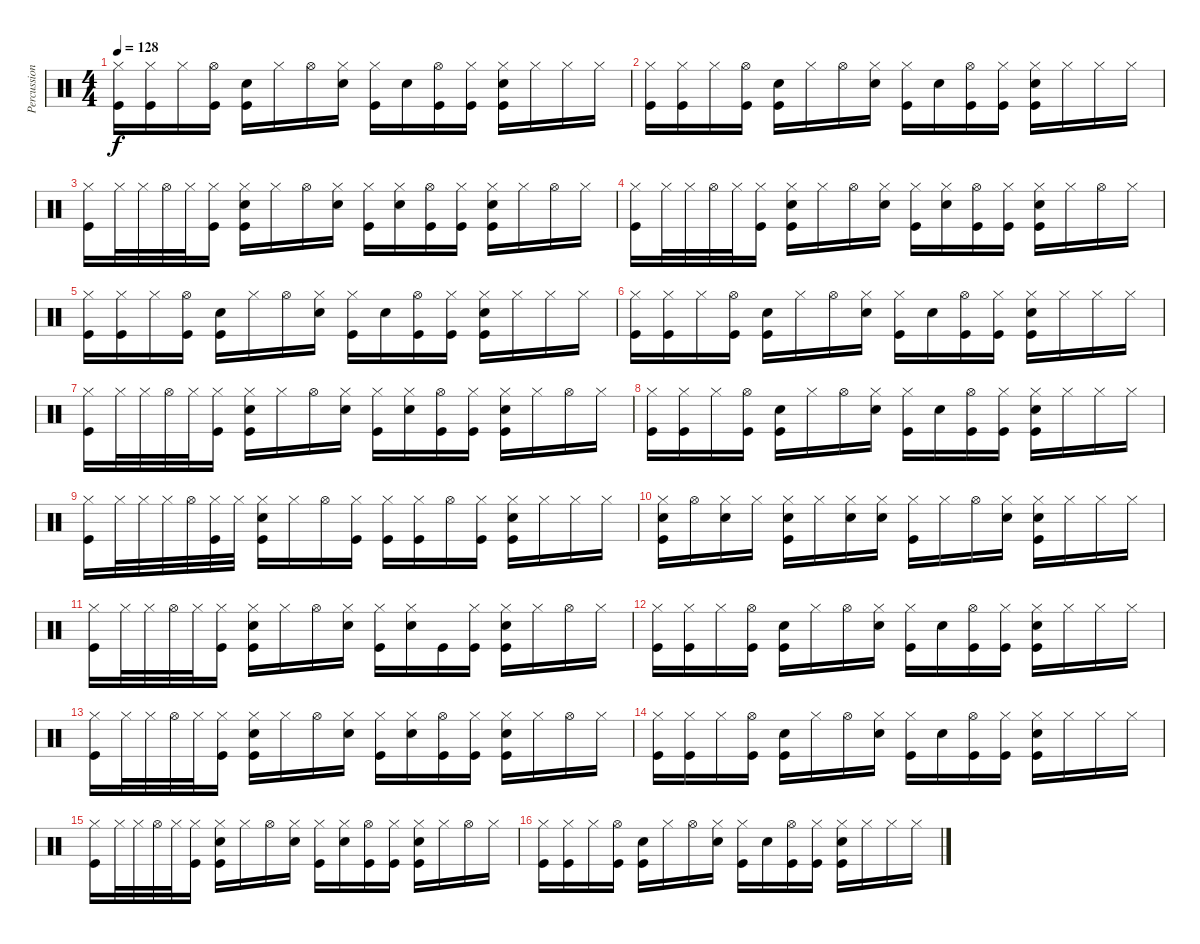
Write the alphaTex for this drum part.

\track ("Percussion" "Percussion") {instrument percussion}
\staff {score}
\articulation defaults
\ts (4 4)
\tempo 128
\clef neutral
\ks c
("Kick (hit)" "Hi-Hat (closed)").16{dy f} ("Kick (hit)" "Hi-Hat (closed)").16 "Hi-Hat (closed)".16 ("Kick (hit)" "Hi-Hat (open)").16 ("Kick (hit)" "Snare (hit) 2").16 "Hi-Hat (closed)".16 "Hi-Hat (open)".16 ("Snare (hit) 2" "Hi-Hat (closed)").16 ("Kick (hit)" "Hi-Hat (closed)").16 "Snare (hit) 2".16 ("Kick (hit)" "Hi-Hat (open)").16 ("Kick (hit)" "Hi-Hat (closed)").16 ("Kick (hit)" "Snare (hit) 2" "Hi-Hat (closed)").16 "Hi-Hat (closed)".16 "Hi-Hat (closed)".16 "Hi-Hat (closed)".16 |
("Kick (hit)" "Hi-Hat (closed)").16 ("Kick (hit)" "Hi-Hat (closed)").16 "Hi-Hat (closed)".16 ("Kick (hit)" "Hi-Hat (open)").16 ("Kick (hit)" "Snare (hit) 2").16 "Hi-Hat (closed)".16 "Hi-Hat (open)".16 ("Snare (hit) 2" "Hi-Hat (closed)").16 ("Kick (hit)" "Hi-Hat (closed)").16 "Snare (hit) 2".16 ("Kick (hit)" "Hi-Hat (open)").16 ("Kick (hit)" "Hi-Hat (closed)").16 ("Kick (hit)" "Snare (hit) 2" "Hi-Hat (closed)").16 "Hi-Hat (closed)".16 "Hi-Hat (closed)".16 "Hi-Hat (closed)".16 |
("Kick (hit)" "Hi-Hat (closed)").16 "Hi-Hat (closed)".32 "Hi-Hat (closed)".32 "Hi-Hat (open)".32 "Hi-Hat (closed)".32 ("Kick (hit)" "Hi-Hat (closed)").16 ("Kick (hit)" "Snare (hit) 2" "Hi-Hat (closed)").16 "Hi-Hat (closed)".16 "Hi-Hat (open)".16 ("Snare (hit) 2" "Hi-Hat (closed)").16 ("Kick (hit)" "Hi-Hat (closed)").16 ("Snare (hit) 2" "Hi-Hat (closed)").16 ("Kick (hit)" "Hi-Hat (open)").16 ("Kick (hit)" "Hi-Hat (closed)").16 ("Kick (hit)" "Snare (hit) 2" "Hi-Hat (closed)").16 "Hi-Hat (closed)".16 "Hi-Hat (open)".16 "Hi-Hat (closed)".16 |
("Kick (hit)" "Hi-Hat (closed)").16 "Hi-Hat (closed)".32 "Hi-Hat (closed)".32 "Hi-Hat (open)".32 "Hi-Hat (closed)".32 ("Kick (hit)" "Hi-Hat (closed)").16 ("Kick (hit)" "Snare (hit) 2" "Hi-Hat (closed)").16 "Hi-Hat (closed)".16 "Hi-Hat (open)".16 ("Snare (hit) 2" "Hi-Hat (closed)").16 ("Kick (hit)" "Hi-Hat (closed)").16 ("Snare (hit) 2" "Hi-Hat (closed)").16 ("Kick (hit)" "Hi-Hat (open)").16 ("Kick (hit)" "Hi-Hat (closed)").16 ("Kick (hit)" "Snare (hit) 2" "Hi-Hat (closed)").16 "Hi-Hat (closed)".16 "Hi-Hat (open)".16 "Hi-Hat (closed)".16 |
("Kick (hit)" "Hi-Hat (closed)").16 ("Kick (hit)" "Hi-Hat (closed)").16 "Hi-Hat (closed)".16 ("Kick (hit)" "Hi-Hat (open)").16 ("Kick (hit)" "Snare (hit) 2").16 "Hi-Hat (closed)".16 "Hi-Hat (open)".16 ("Snare (hit) 2" "Hi-Hat (closed)").16 ("Kick (hit)" "Hi-Hat (closed)").16 "Snare (hit) 2".16 ("Kick (hit)" "Hi-Hat (open)").16 ("Kick (hit)" "Hi-Hat (closed)").16 ("Kick (hit)" "Snare (hit) 2" "Hi-Hat (closed)").16 "Hi-Hat (closed)".16 "Hi-Hat (closed)".16 "Hi-Hat (closed)".16 |
("Kick (hit)" "Hi-Hat (closed)").16 ("Kick (hit)" "Hi-Hat (closed)").16 "Hi-Hat (closed)".16 ("Kick (hit)" "Hi-Hat (open)").16 ("Kick (hit)" "Snare (hit) 2").16 "Hi-Hat (closed)".16 "Hi-Hat (open)".16 ("Snare (hit) 2" "Hi-Hat (closed)").16 ("Kick (hit)" "Hi-Hat (closed)").16 "Snare (hit) 2".16 ("Kick (hit)" "Hi-Hat (open)").16 ("Kick (hit)" "Hi-Hat (closed)").16 ("Kick (hit)" "Snare (hit) 2" "Hi-Hat (closed)").16 "Hi-Hat (closed)".16 "Hi-Hat (closed)".16 "Hi-Hat (closed)".16 |
("Kick (hit)" "Hi-Hat (closed)").16 "Hi-Hat (closed)".32 "Hi-Hat (closed)".32 "Hi-Hat (open)".32 "Hi-Hat (closed)".32 ("Kick (hit)" "Hi-Hat (closed)").16 ("Kick (hit)" "Snare (hit) 2" "Hi-Hat (closed)").16 "Hi-Hat (closed)".16 "Hi-Hat (open)".16 ("Snare (hit) 2" "Hi-Hat (closed)").16 ("Kick (hit)" "Hi-Hat (closed)").16 ("Snare (hit) 2" "Hi-Hat (closed)").16 ("Kick (hit)" "Hi-Hat (open)").16 ("Kick (hit)" "Hi-Hat (closed)").16 ("Kick (hit)" "Snare (hit) 2" "Hi-Hat (closed)").16 "Hi-Hat (closed)".16 "Hi-Hat (open)".16 "Hi-Hat (closed)".16 |
("Kick (hit)" "Hi-Hat (closed)").16 ("Kick (hit)" "Hi-Hat (closed)").16 "Hi-Hat (closed)".16 ("Kick (hit)" "Hi-Hat (open)").16 ("Kick (hit)" "Snare (hit) 2").16 "Hi-Hat (closed)".16 "Hi-Hat (open)".16 ("Snare (hit) 2" "Hi-Hat (closed)").16 ("Kick (hit)" "Hi-Hat (closed)").16 "Snare (hit) 2".16 ("Kick (hit)" "Hi-Hat (open)").16 ("Kick (hit)" "Hi-Hat (closed)").16 ("Kick (hit)" "Snare (hit) 2" "Hi-Hat (closed)").16 "Hi-Hat (closed)".16 "Hi-Hat (closed)".16 "Hi-Hat (closed)".16 |
("Kick (hit)" "Hi-Hat (closed)").16 "Hi-Hat (closed)".32 "Hi-Hat (closed)".32 "Hi-Hat (closed)".32 "Hi-Hat (open)".32 ("Kick (hit)" "Hi-Hat (closed)").32 "Hi-Hat (closed)".32 ("Kick (hit)" "Snare (hit) 2" "Hi-Hat (closed)").16 "Hi-Hat (closed)".16 "Hi-Hat (open)".16 ("Kick (hit)" "Hi-Hat (closed)").16 ("Kick (hit)" "Hi-Hat (closed)").16 ("Kick (hit)" "Hi-Hat (closed)").16 "Hi-Hat (open)".16 ("Kick (hit)" "Hi-Hat (closed)").16 ("Kick (hit)" "Snare (hit) 2" "Hi-Hat (closed)").16 "Hi-Hat (closed)".16 "Hi-Hat (closed)".16 "Hi-Hat (closed)".16 |
("Kick (hit)" "Snare (hit) 2" "Hi-Hat (closed)").16 "Hi-Hat (open)".16 ("Snare (hit) 2" "Hi-Hat (closed)").16 "Hi-Hat (closed)".16 ("Kick (hit)" "Snare (hit) 2" "Hi-Hat (closed)").16 "Hi-Hat (closed)".16 ("Snare (hit) 2" "Hi-Hat (closed)").16 ("Snare (hit) 2" "Hi-Hat (closed)").16 ("Kick (hit)" "Hi-Hat (closed)").16 "Hi-Hat (closed)".16 "Hi-Hat (open)".16 ("Snare (hit) 2" "Hi-Hat (closed)").16 ("Kick (hit)" "Snare (hit) 2" "Hi-Hat (closed)").16 "Hi-Hat (closed)".16 "Hi-Hat (closed)".16 "Hi-Hat (closed)".16 |
("Kick (hit)" "Hi-Hat (closed)").16 "Hi-Hat (closed)".32 "Hi-Hat (closed)".32 "Hi-Hat (open)".32 "Hi-Hat (closed)".32 ("Kick (hit)" "Hi-Hat (closed)").16 ("Kick (hit)" "Snare (hit) 2" "Hi-Hat (closed)").16 "Hi-Hat (closed)".16 "Hi-Hat (open)".16 ("Snare (hit) 2" "Hi-Hat (closed)").16 ("Kick (hit)" "Hi-Hat (closed)").16 ("Snare (hit) 2" "Hi-Hat (closed)").16 "Kick (hit)".16 ("Kick (hit)" "Hi-Hat (closed)").16 ("Kick (hit)" "Snare (hit) 2" "Hi-Hat (closed)").16 "Hi-Hat (closed)".16 "Hi-Hat (open)".16 "Hi-Hat (closed)".16 |
("Kick (hit)" "Hi-Hat (closed)").16 ("Kick (hit)" "Hi-Hat (closed)").16 "Hi-Hat (closed)".16 ("Kick (hit)" "Hi-Hat (open)").16 ("Kick (hit)" "Snare (hit) 2").16 "Hi-Hat (closed)".16 "Hi-Hat (open)".16 ("Snare (hit) 2" "Hi-Hat (closed)").16 ("Kick (hit)" "Hi-Hat (closed)").16 "Snare (hit) 2".16 ("Kick (hit)" "Hi-Hat (open)").16 ("Kick (hit)" "Hi-Hat (closed)").16 ("Kick (hit)" "Snare (hit) 2" "Hi-Hat (closed)").16 "Hi-Hat (closed)".16 "Hi-Hat (closed)".16 "Hi-Hat (closed)".16 |
("Kick (hit)" "Hi-Hat (closed)").16 "Hi-Hat (closed)".32 "Hi-Hat (closed)".32 "Hi-Hat (open)".32 "Hi-Hat (closed)".32 ("Kick (hit)" "Hi-Hat (closed)").16 ("Kick (hit)" "Snare (hit) 2" "Hi-Hat (closed)").16 "Hi-Hat (closed)".16 "Hi-Hat (open)".16 ("Snare (hit) 2" "Hi-Hat (closed)").16 ("Kick (hit)" "Hi-Hat (closed)").16 ("Snare (hit) 2" "Hi-Hat (closed)").16 ("Kick (hit)" "Hi-Hat (open)").16 ("Kick (hit)" "Hi-Hat (closed)").16 ("Kick (hit)" "Snare (hit) 2" "Hi-Hat (closed)").16 "Hi-Hat (closed)".16 "Hi-Hat (open)".16 "Hi-Hat (closed)".16 |
("Kick (hit)" "Hi-Hat (closed)").16 ("Kick (hit)" "Hi-Hat (closed)").16 "Hi-Hat (closed)".16 ("Kick (hit)" "Hi-Hat (open)").16 ("Kick (hit)" "Snare (hit) 2").16 "Hi-Hat (closed)".16 "Hi-Hat (open)".16 ("Snare (hit) 2" "Hi-Hat (closed)").16 ("Kick (hit)" "Hi-Hat (closed)").16 "Snare (hit) 2".16 ("Kick (hit)" "Hi-Hat (open)").16 ("Kick (hit)" "Hi-Hat (closed)").16 ("Kick (hit)" "Snare (hit) 2" "Hi-Hat (closed)").16 "Hi-Hat (closed)".16 "Hi-Hat (closed)".16 "Hi-Hat (closed)".16 |
("Kick (hit)" "Hi-Hat (closed)").16 "Hi-Hat (closed)".32 "Hi-Hat (closed)".32 "Hi-Hat (open)".32 "Hi-Hat (closed)".32 ("Kick (hit)" "Hi-Hat (closed)").16 ("Kick (hit)" "Snare (hit) 2" "Hi-Hat (closed)").16 "Hi-Hat (closed)".16 "Hi-Hat (open)".16 ("Snare (hit) 2" "Hi-Hat (closed)").16 ("Kick (hit)" "Hi-Hat (closed)").16 ("Snare (hit) 2" "Hi-Hat (closed)").16 ("Kick (hit)" "Hi-Hat (open)").16 ("Kick (hit)" "Hi-Hat (closed)").16 ("Kick (hit)" "Snare (hit) 2" "Hi-Hat (closed)").16 "Hi-Hat (closed)".16 "Hi-Hat (open)".16 "Hi-Hat (closed)".16 |
("Kick (hit)" "Hi-Hat (closed)").16 ("Kick (hit)" "Hi-Hat (closed)").16 "Hi-Hat (closed)".16 ("Kick (hit)" "Hi-Hat (open)").16 ("Kick (hit)" "Snare (hit) 2").16 "Hi-Hat (closed)".16 "Hi-Hat (open)".16 ("Snare (hit) 2" "Hi-Hat (closed)").16 ("Kick (hit)" "Hi-Hat (closed)").16 "Snare (hit) 2".16 ("Kick (hit)" "Hi-Hat (open)").16 ("Kick (hit)" "Hi-Hat (closed)").16 ("Kick (hit)" "Snare (hit) 2" "Hi-Hat (closed)").16 "Hi-Hat (closed)".16 "Hi-Hat (closed)".16 "Hi-Hat (closed)".16
